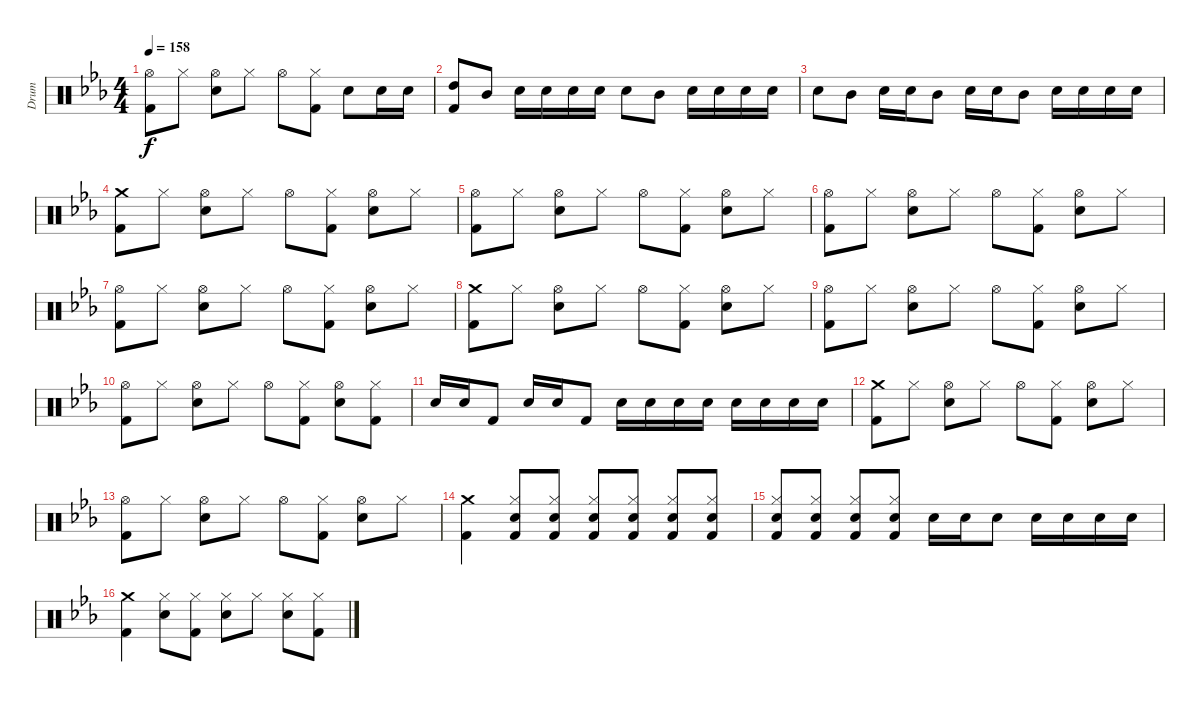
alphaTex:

\track ("Drum" "Drum") {instrument percussion}
\staff {score}
\articulation defaults
\ts (4 4)
\tempo 158
\clef neutral
\ks eb
("Hi-Hat (open)" "Kick (hit) 2").8{dy f} "Hi-Hat (closed)".8 ("Hi-Hat (open)" "Electric Snare (hit)").8 "Hi-Hat (closed)".8 "Hi-Hat (open)".8 ("Hi-Hat (closed)" "Kick (hit) 2").8 "Electric Snare (hit)".8 "Electric Snare (hit)".16 "Electric Snare (hit)".16 |
("High Tom (hit)" "Kick (hit) 2").8 "Mid Tom (hit)".8 "Electric Snare (hit)".16 "Electric Snare (hit)".16 "Electric Snare (hit)".16 "Electric Snare (hit)".16 "Electric Snare (hit)".8 "Mid Tom (hit)".8 "Electric Snare (hit)".16 "Electric Snare (hit)".16 "Electric Snare (hit)".16 "Electric Snare (hit)".16 |
"Electric Snare (hit)".8 "Mid Tom (hit)".8 "Electric Snare (hit)".16 "Electric Snare (hit)".16 "Mid Tom (hit)".8 "Electric Snare (hit)".16 "Electric Snare (hit)".16 "Mid Tom (hit)".8 "Electric Snare (hit)".16 "Electric Snare (hit)".16 "Electric Snare (hit)".16 "Electric Snare (hit)".16 |
("Crash medium (hit)" "Kick (hit) 2").8 "Hi-Hat (closed)".8 ("Hi-Hat (open)" "Electric Snare (hit)").8 "Hi-Hat (closed)".8 "Hi-Hat (open)".8 ("Hi-Hat (closed)" "Kick (hit) 2").8 ("Hi-Hat (open)" "Electric Snare (hit)").8 "Hi-Hat (closed)".8 |
("Hi-Hat (open)" "Kick (hit) 2").8 "Hi-Hat (closed)".8 ("Hi-Hat (open)" "Electric Snare (hit)").8 "Hi-Hat (closed)".8 "Hi-Hat (open)".8 ("Hi-Hat (closed)" "Kick (hit) 2").8 ("Hi-Hat (open)" "Electric Snare (hit)").8 "Hi-Hat (closed)".8 |
("Hi-Hat (open)" "Kick (hit) 2").8 "Hi-Hat (closed)".8 ("Hi-Hat (open)" "Electric Snare (hit)").8 "Hi-Hat (closed)".8 "Hi-Hat (open)".8 ("Hi-Hat (closed)" "Kick (hit) 2").8 ("Hi-Hat (open)" "Electric Snare (hit)").8 "Hi-Hat (closed)".8 |
("Hi-Hat (open)" "Kick (hit) 2").8 "Hi-Hat (closed)".8 ("Hi-Hat (open)" "Electric Snare (hit)").8 "Hi-Hat (closed)".8 "Hi-Hat (open)".8 ("Hi-Hat (closed)" "Kick (hit) 2").8 ("Hi-Hat (open)" "Electric Snare (hit)").8 "Hi-Hat (closed)".8 |
("Crash medium (hit)" "Kick (hit) 2").8 "Hi-Hat (closed)".8 ("Hi-Hat (open)" "Electric Snare (hit)").8 "Hi-Hat (closed)".8 "Hi-Hat (open)".8 ("Hi-Hat (closed)" "Kick (hit) 2").8 ("Hi-Hat (open)" "Electric Snare (hit)").8 "Hi-Hat (closed)".8 |
("Hi-Hat (open)" "Kick (hit) 2").8 "Hi-Hat (closed)".8 ("Hi-Hat (open)" "Electric Snare (hit)").8 "Hi-Hat (closed)".8 "Hi-Hat (open)".8 ("Hi-Hat (closed)" "Kick (hit) 2").8 ("Hi-Hat (open)" "Electric Snare (hit)").8 "Hi-Hat (closed)".8 |
("Hi-Hat (open)" "Kick (hit) 2").8 "Hi-Hat (closed)".8 ("Hi-Hat (open)" "Electric Snare (hit)").8 "Hi-Hat (closed)".8 "Hi-Hat (open)".8 ("Hi-Hat (closed)" "Kick (hit) 2").8 ("Hi-Hat (open)" "Electric Snare (hit)").8 ("Hi-Hat (closed)" "Kick (hit) 2").8 |
"Electric Snare (hit)".16 "Electric Snare (hit)".16 "Kick (hit) 2".8 "Electric Snare (hit)".16 "Electric Snare (hit)".16 "Kick (hit) 2".8 "Electric Snare (hit)".16 "Electric Snare (hit)".16 "Electric Snare (hit)".16 "Electric Snare (hit)".16 "Electric Snare (hit)".16 "Electric Snare (hit)".16 "Electric Snare (hit)".16 "Electric Snare (hit)".16 |
("Crash medium (hit)" "Kick (hit) 2").8 "Hi-Hat (closed)".8 ("Hi-Hat (open)" "Electric Snare (hit)").8 "Hi-Hat (closed)".8 "Hi-Hat (open)".8 ("Hi-Hat (closed)" "Kick (hit) 2").8 ("Hi-Hat (open)" "Electric Snare (hit)").8 "Hi-Hat (closed)".8 |
("Hi-Hat (open)" "Kick (hit) 2").8 "Hi-Hat (closed)".8 ("Hi-Hat (open)" "Electric Snare (hit)").8 "Hi-Hat (closed)".8 "Hi-Hat (open)".8 ("Hi-Hat (closed)" "Kick (hit) 2").8 ("Hi-Hat (open)" "Electric Snare (hit)").8 "Hi-Hat (closed)".8 |
("Crash medium (hit)" "Kick (hit) 2").4 ("Hi-Hat (closed)" "Electric Snare (hit)" "Kick (hit) 2").8 ("Hi-Hat (closed)" "Electric Snare (hit)" "Kick (hit) 2").8 ("Hi-Hat (closed)" "Electric Snare (hit)" "Kick (hit) 2").8 ("Hi-Hat (closed)" "Electric Snare (hit)" "Kick (hit) 2").8 ("Hi-Hat (closed)" "Electric Snare (hit)" "Kick (hit) 2").8 ("Hi-Hat (closed)" "Electric Snare (hit)" "Kick (hit) 2").8 |
("Hi-Hat (closed)" "Electric Snare (hit)" "Kick (hit) 2").8 ("Hi-Hat (closed)" "Electric Snare (hit)" "Kick (hit) 2").8 ("Hi-Hat (closed)" "Electric Snare (hit)" "Kick (hit) 2").8 ("Hi-Hat (closed)" "Electric Snare (hit)" "Kick (hit) 2").8 "Electric Snare (hit)".16 "Electric Snare (hit)".16 "Electric Snare (hit)".8 "Electric Snare (hit)".16 "Electric Snare (hit)".16 "Electric Snare (hit)".16 "Electric Snare (hit)".16 |
("Crash medium (hit)" "Kick (hit) 2").4 ("Hi-Hat (closed)" "Electric Snare (hit)").8 ("Hi-Hat (closed)" "Kick (hit) 2").8 ("Hi-Hat (closed)" "Electric Snare (hit)").8 "Hi-Hat (closed)".8 ("Hi-Hat (closed)" "Electric Snare (hit)").8 ("Hi-Hat (closed)" "Kick (hit) 2").8
